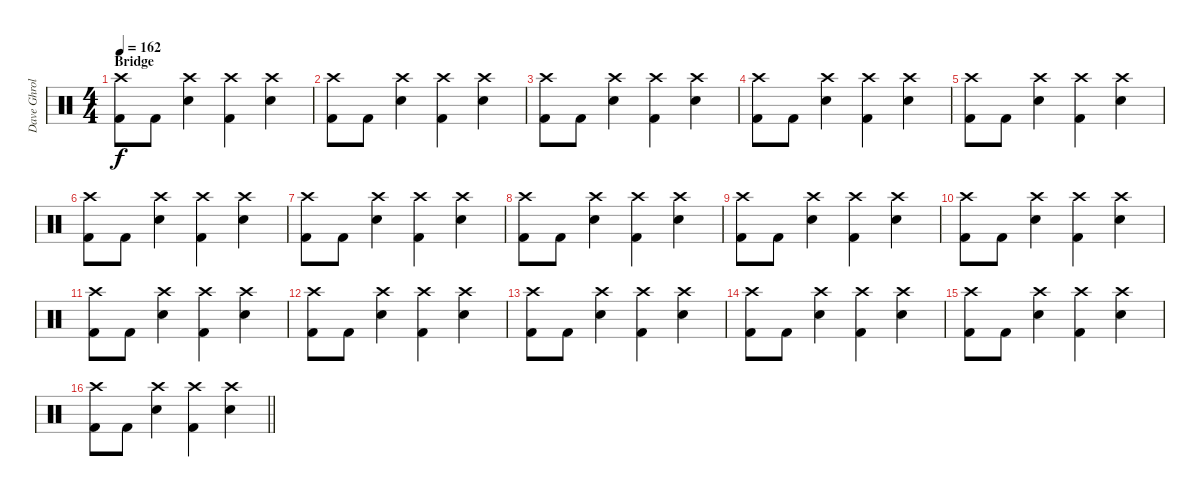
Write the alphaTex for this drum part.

\track ("Dave Ghrol" "Dave Ghrol") {instrument percussion}
\staff {score}
\articulation defaults
\ts (4 4)
\section ("" "Bridge")
\tempo 162
\clef neutral
\ks c
("Crash high (hit)" "Kick (hit) 2").8{dy f} "Kick (hit) 2".8 ("Crash high (hit)" "Snare (hit) 2").4 ("Crash high (hit)" "Kick (hit) 2").4 ("Crash high (hit)" "Snare (hit) 2").4 |
("Crash high (hit)" "Kick (hit) 2").8 "Kick (hit) 2".8 ("Crash high (hit)" "Snare (hit) 2").4 ("Crash high (hit)" "Kick (hit) 2").4 ("Crash high (hit)" "Snare (hit) 2").4 |
("Crash high (hit)" "Kick (hit) 2").8 "Kick (hit) 2".8 ("Crash high (hit)" "Snare (hit) 2").4 ("Crash high (hit)" "Kick (hit) 2").4 ("Crash high (hit)" "Snare (hit) 2").4 |
("Crash high (hit)" "Kick (hit) 2").8 "Kick (hit) 2".8 ("Crash high (hit)" "Snare (hit) 2").4 ("Crash high (hit)" "Kick (hit) 2").4 ("Crash high (hit)" "Snare (hit) 2").4 |
("Crash high (hit)" "Kick (hit) 2").8 "Kick (hit) 2".8 ("Crash high (hit)" "Snare (hit) 2").4 ("Crash high (hit)" "Kick (hit) 2").4 ("Crash high (hit)" "Snare (hit) 2").4 |
("Crash high (hit)" "Kick (hit) 2").8 "Kick (hit) 2".8 ("Crash high (hit)" "Snare (hit) 2").4 ("Crash high (hit)" "Kick (hit) 2").4 ("Crash high (hit)" "Snare (hit) 2").4 |
("Crash high (hit)" "Kick (hit) 2").8 "Kick (hit) 2".8 ("Crash high (hit)" "Snare (hit) 2").4 ("Crash high (hit)" "Kick (hit) 2").4 ("Crash high (hit)" "Snare (hit) 2").4 |
("Crash high (hit)" "Kick (hit) 2").8 "Kick (hit) 2".8 ("Crash high (hit)" "Snare (hit) 2").4 ("Crash high (hit)" "Kick (hit) 2").4 ("Crash high (hit)" "Snare (hit) 2").4 |
("Crash high (hit)" "Kick (hit) 2").8 "Kick (hit) 2".8 ("Crash high (hit)" "Snare (hit) 2").4 ("Crash high (hit)" "Kick (hit) 2").4 ("Crash high (hit)" "Snare (hit) 2").4 |
("Crash high (hit)" "Kick (hit) 2").8 "Kick (hit) 2".8 ("Crash high (hit)" "Snare (hit) 2").4 ("Crash high (hit)" "Kick (hit) 2").4 ("Crash high (hit)" "Snare (hit) 2").4 |
("Crash high (hit)" "Kick (hit) 2").8 "Kick (hit) 2".8 ("Crash high (hit)" "Snare (hit) 2").4 ("Crash high (hit)" "Kick (hit) 2").4 ("Crash high (hit)" "Snare (hit) 2").4 |
("Crash high (hit)" "Kick (hit) 2").8 "Kick (hit) 2".8 ("Crash high (hit)" "Snare (hit) 2").4 ("Crash high (hit)" "Kick (hit) 2").4 ("Crash high (hit)" "Snare (hit) 2").4 |
("Crash high (hit)" "Kick (hit) 2").8 "Kick (hit) 2".8 ("Crash high (hit)" "Snare (hit) 2").4 ("Crash high (hit)" "Kick (hit) 2").4 ("Crash high (hit)" "Snare (hit) 2").4 |
("Crash high (hit)" "Kick (hit) 2").8 "Kick (hit) 2".8 ("Crash high (hit)" "Snare (hit) 2").4 ("Crash high (hit)" "Kick (hit) 2").4 ("Crash high (hit)" "Snare (hit) 2").4 |
("Crash high (hit)" "Kick (hit) 2").8 "Kick (hit) 2".8 ("Crash high (hit)" "Snare (hit) 2").4 ("Crash high (hit)" "Kick (hit) 2").4 ("Crash high (hit)" "Snare (hit) 2").4 |
\barLineRight lightlight
("Crash high (hit)" "Kick (hit) 2").8 "Kick (hit) 2".8 ("Crash high (hit)" "Snare (hit) 2").4 ("Crash high (hit)" "Kick (hit) 2").4 ("Crash high (hit)" "Snare (hit) 2").4
